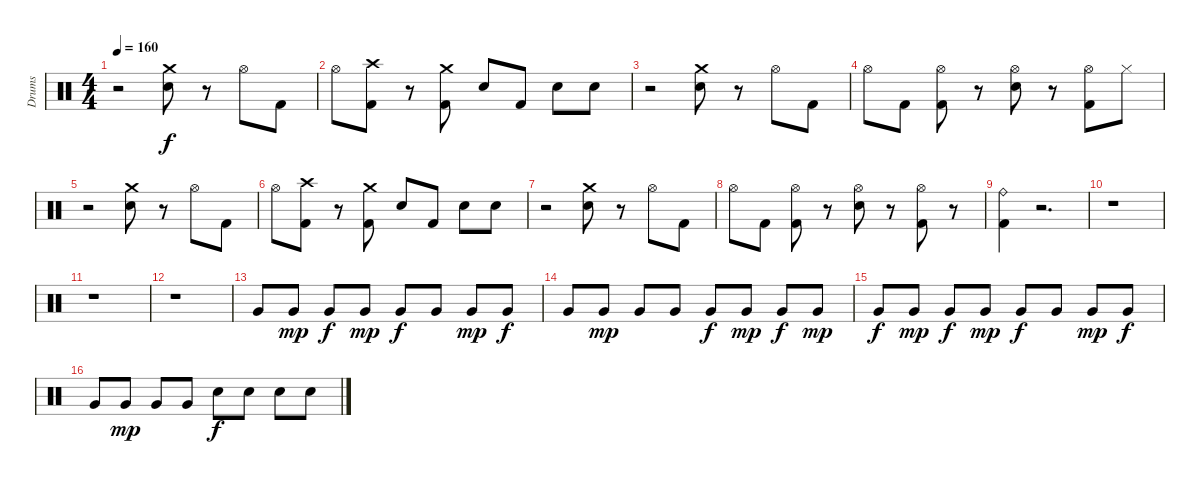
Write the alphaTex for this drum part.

\track ("Drums" "Drums") {instrument percussion}
\staff {score}
\articulation defaults
\ts (4 4)
\tempo 160
\clef neutral
\ks c
r.2{dy f} ("Electric Snare (hit)" "Crash medium (hit)").8 r.8 "Hi-Hat (open)".8 "Kick (hit) 2".8 |
"Hi-Hat (open)".8 ("Kick (hit) 2" "Crash high (hit)").8 r.8 ("Kick (hit) 2" "Crash medium (hit)").8 "Electric Snare (hit)".8 "Kick (hit) 2".8 "Electric Snare (hit)".8 "Electric Snare (hit)".8 |
r.2 ("Electric Snare (hit)" "Crash medium (hit)").8 r.8 "Hi-Hat (open)".8 "Kick (hit) 2".8 |
"Hi-Hat (open)".8 "Kick (hit) 2".8 ("Kick (hit) 2" "Hi-Hat (open)").8 r.8 ("Electric Snare (hit)" "Hi-Hat (open)").8 r.8 ("Kick (hit) 2" "Hi-Hat (open)").8 "Hi-Hat (closed)".8 |
r.2 ("Electric Snare (hit)" "Crash medium (hit)").8 r.8 "Hi-Hat (open)".8 "Kick (hit) 2".8 |
"Hi-Hat (open)".8 ("Kick (hit) 2" "Crash high (hit)").8 r.8 ("Kick (hit) 2" "Crash medium (hit)").8 "Electric Snare (hit)".8 "Kick (hit) 2".8 "Electric Snare (hit)".8 "Electric Snare (hit)".8 |
r.2 ("Electric Snare (hit)" "Crash medium (hit)").8 r.8 "Hi-Hat (open)".8 "Kick (hit) 2".8 |
"Hi-Hat (open)".8 "Kick (hit) 2".8 ("Kick (hit) 2" "Hi-Hat (open)").8 r.8 ("Electric Snare (hit)" "Hi-Hat (open)").8 r.8 ("Kick (hit) 2" "Hi-Hat (open)").8 r.8 |
("Ride (bell)" "Kick (hit) 2").4 r.2{d} |
r.1 |
r.1 |
r.1 |
"Very Low Tom (hit)".8 "Very Low Tom (hit)".8{dy mp} "Very Low Tom (hit)".8{dy f} "Very Low Tom (hit)".8{dy mp} "Very Low Tom (hit)".8{dy f} "Very Low Tom (hit)".8 "Very Low Tom (hit)".8{dy mp} "Very Low Tom (hit)".8{dy f} |
"Very Low Tom (hit)".8 "Very Low Tom (hit)".8{dy mp} "Very Low Tom (hit)".8 "Very Low Tom (hit)".8 "Very Low Tom (hit)".8{dy f} "Very Low Tom (hit)".8{dy mp} "Very Low Tom (hit)".8{dy f} "Very Low Tom (hit)".8{dy mp} |
"Very Low Tom (hit)".8{dy f} "Very Low Tom (hit)".8{dy mp} "Very Low Tom (hit)".8{dy f} "Very Low Tom (hit)".8{dy mp} "Very Low Tom (hit)".8{dy f} "Very Low Tom (hit)".8 "Very Low Tom (hit)".8{dy mp} "Very Low Tom (hit)".8{dy f} |
"Very Low Tom (hit)".8 "Very Low Tom (hit)".8{dy mp} "Very Low Tom (hit)".8 "Very Low Tom (hit)".8 "Electric Snare (hit)".8{dy f} "Electric Snare (hit)".8 "Electric Snare (hit)".8 "Electric Snare (hit)".8
